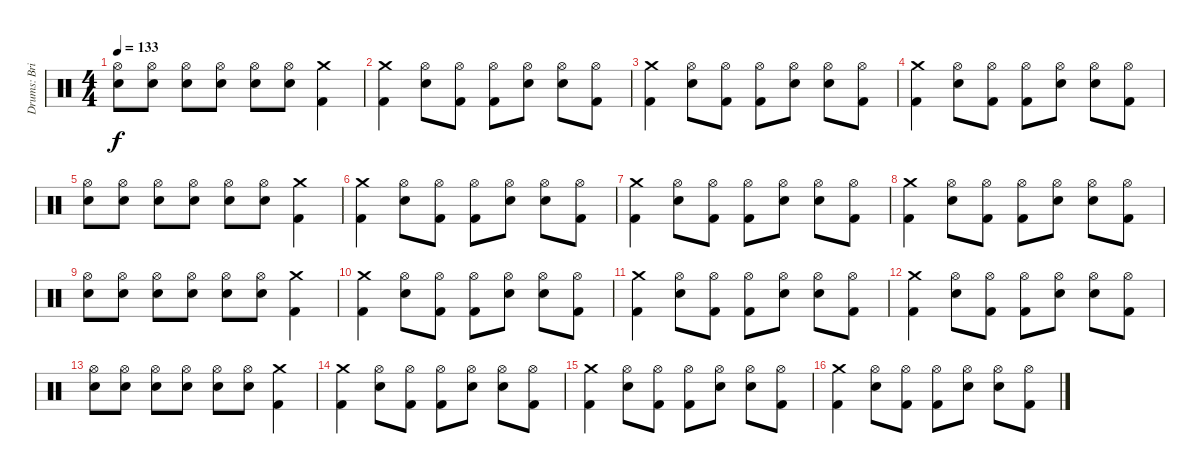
\track ("Drums: Brian Mantila" "Drums: Bri") {instrument percussion}
\staff {score}
\articulation defaults
\ts (4 4)
\tempo 133
\clef neutral
\ks c
("Electric Snare (hit)" "Hi-Hat (open)").8{dy f} ("Electric Snare (hit)" "Hi-Hat (open)").8 ("Electric Snare (hit)" "Hi-Hat (open)").8 ("Electric Snare (hit)" "Hi-Hat (open)").8 ("Electric Snare (hit)" "Hi-Hat (open)").8 ("Electric Snare (hit)" "Hi-Hat (open)").8 ("Crash medium (hit)" "Kick (hit) 2").4 |
("Crash medium (hit)" "Kick (hit) 2").4 ("Electric Snare (hit)" "Hi-Hat (open)").8 ("Kick (hit) 2" "Hi-Hat (open)").8 ("Kick (hit) 2" "Hi-Hat (open)").8 ("Electric Snare (hit)" "Hi-Hat (open)").8 ("Electric Snare (hit)" "Hi-Hat (open)").8 ("Kick (hit) 2" "Hi-Hat (open)").8 |
("Crash medium (hit)" "Kick (hit) 2").4 ("Electric Snare (hit)" "Hi-Hat (open)").8 ("Kick (hit) 2" "Hi-Hat (open)").8 ("Kick (hit) 2" "Hi-Hat (open)").8 ("Electric Snare (hit)" "Hi-Hat (open)").8 ("Electric Snare (hit)" "Hi-Hat (open)").8 ("Kick (hit) 2" "Hi-Hat (open)").8 |
("Crash medium (hit)" "Kick (hit) 2").4 ("Electric Snare (hit)" "Hi-Hat (open)").8 ("Kick (hit) 2" "Hi-Hat (open)").8 ("Kick (hit) 2" "Hi-Hat (open)").8 ("Electric Snare (hit)" "Hi-Hat (open)").8 ("Electric Snare (hit)" "Hi-Hat (open)").8 ("Kick (hit) 2" "Hi-Hat (open)").8 |
("Electric Snare (hit)" "Hi-Hat (open)").8 ("Electric Snare (hit)" "Hi-Hat (open)").8 ("Electric Snare (hit)" "Hi-Hat (open)").8 ("Electric Snare (hit)" "Hi-Hat (open)").8 ("Electric Snare (hit)" "Hi-Hat (open)").8 ("Electric Snare (hit)" "Hi-Hat (open)").8 ("Crash medium (hit)" "Kick (hit) 2").4 |
("Crash medium (hit)" "Kick (hit) 2").4 ("Electric Snare (hit)" "Hi-Hat (open)").8 ("Kick (hit) 2" "Hi-Hat (open)").8 ("Kick (hit) 2" "Hi-Hat (open)").8 ("Electric Snare (hit)" "Hi-Hat (open)").8 ("Electric Snare (hit)" "Hi-Hat (open)").8 ("Kick (hit) 2" "Hi-Hat (open)").8 |
("Crash medium (hit)" "Kick (hit) 2").4 ("Electric Snare (hit)" "Hi-Hat (open)").8 ("Kick (hit) 2" "Hi-Hat (open)").8 ("Kick (hit) 2" "Hi-Hat (open)").8 ("Electric Snare (hit)" "Hi-Hat (open)").8 ("Electric Snare (hit)" "Hi-Hat (open)").8 ("Kick (hit) 2" "Hi-Hat (open)").8 |
("Crash medium (hit)" "Kick (hit) 2").4 ("Electric Snare (hit)" "Hi-Hat (open)").8 ("Kick (hit) 2" "Hi-Hat (open)").8 ("Kick (hit) 2" "Hi-Hat (open)").8 ("Electric Snare (hit)" "Hi-Hat (open)").8 ("Electric Snare (hit)" "Hi-Hat (open)").8 ("Kick (hit) 2" "Hi-Hat (open)").8 |
("Electric Snare (hit)" "Hi-Hat (open)").8 ("Electric Snare (hit)" "Hi-Hat (open)").8 ("Electric Snare (hit)" "Hi-Hat (open)").8 ("Electric Snare (hit)" "Hi-Hat (open)").8 ("Electric Snare (hit)" "Hi-Hat (open)").8 ("Electric Snare (hit)" "Hi-Hat (open)").8 ("Crash medium (hit)" "Kick (hit) 2").4 |
("Crash medium (hit)" "Kick (hit) 2").4 ("Electric Snare (hit)" "Hi-Hat (open)").8 ("Kick (hit) 2" "Hi-Hat (open)").8 ("Kick (hit) 2" "Hi-Hat (open)").8 ("Electric Snare (hit)" "Hi-Hat (open)").8 ("Electric Snare (hit)" "Hi-Hat (open)").8 ("Kick (hit) 2" "Hi-Hat (open)").8 |
("Crash medium (hit)" "Kick (hit) 2").4 ("Electric Snare (hit)" "Hi-Hat (open)").8 ("Kick (hit) 2" "Hi-Hat (open)").8 ("Kick (hit) 2" "Hi-Hat (open)").8 ("Electric Snare (hit)" "Hi-Hat (open)").8 ("Electric Snare (hit)" "Hi-Hat (open)").8 ("Kick (hit) 2" "Hi-Hat (open)").8 |
("Crash medium (hit)" "Kick (hit) 2").4 ("Electric Snare (hit)" "Hi-Hat (open)").8 ("Kick (hit) 2" "Hi-Hat (open)").8 ("Kick (hit) 2" "Hi-Hat (open)").8 ("Electric Snare (hit)" "Hi-Hat (open)").8 ("Electric Snare (hit)" "Hi-Hat (open)").8 ("Kick (hit) 2" "Hi-Hat (open)").8 |
("Electric Snare (hit)" "Hi-Hat (open)").8 ("Electric Snare (hit)" "Hi-Hat (open)").8 ("Electric Snare (hit)" "Hi-Hat (open)").8 ("Electric Snare (hit)" "Hi-Hat (open)").8 ("Electric Snare (hit)" "Hi-Hat (open)").8 ("Electric Snare (hit)" "Hi-Hat (open)").8 ("Crash medium (hit)" "Kick (hit) 2").4 |
("Crash medium (hit)" "Kick (hit) 2").4 ("Electric Snare (hit)" "Hi-Hat (open)").8 ("Kick (hit) 2" "Hi-Hat (open)").8 ("Kick (hit) 2" "Hi-Hat (open)").8 ("Electric Snare (hit)" "Hi-Hat (open)").8 ("Electric Snare (hit)" "Hi-Hat (open)").8 ("Kick (hit) 2" "Hi-Hat (open)").8 |
("Crash medium (hit)" "Kick (hit) 2").4 ("Electric Snare (hit)" "Hi-Hat (open)").8 ("Kick (hit) 2" "Hi-Hat (open)").8 ("Kick (hit) 2" "Hi-Hat (open)").8 ("Electric Snare (hit)" "Hi-Hat (open)").8 ("Electric Snare (hit)" "Hi-Hat (open)").8 ("Kick (hit) 2" "Hi-Hat (open)").8 |
("Crash medium (hit)" "Kick (hit) 2").4 ("Electric Snare (hit)" "Hi-Hat (open)").8 ("Kick (hit) 2" "Hi-Hat (open)").8 ("Kick (hit) 2" "Hi-Hat (open)").8 ("Electric Snare (hit)" "Hi-Hat (open)").8 ("Electric Snare (hit)" "Hi-Hat (open)").8 ("Kick (hit) 2" "Hi-Hat (open)").8
